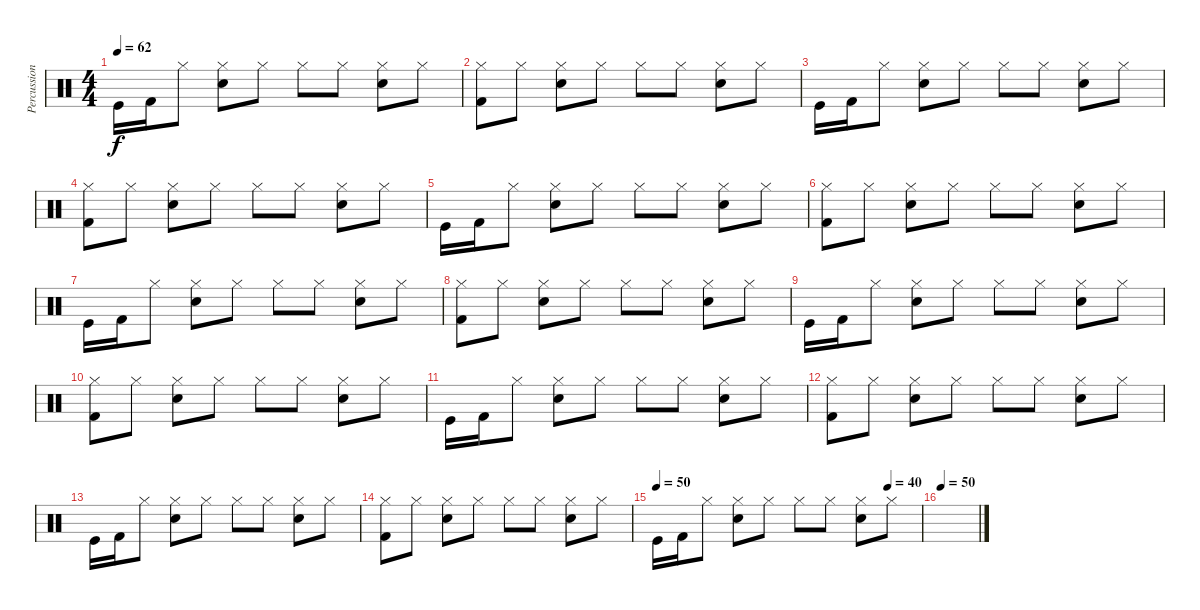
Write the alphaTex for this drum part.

\track ("Percussion" "Percussion") {instrument percussion}
\staff {score}
\articulation defaults
\ts (4 4)
\tempo 62
\clef neutral
\ks c "Kick (hit)".16{dy f} "Kick (hit) 2".16 "Hi-Hat (closed)".8
("Hi-Hat (closed)" "Snare (hit) 2").8 "Hi-Hat (closed)".8 "Hi-Hat (closed)".8 "Hi-Hat (closed)".8 ("Hi-Hat (closed)" "Snare (hit) 2").8 "Hi-Hat (closed)".8 |
("Hi-Hat (closed)" "Kick (hit) 2").8 "Hi-Hat (closed)".8 ("Hi-Hat (closed)" "Snare (hit) 2").8 "Hi-Hat (closed)".8 "Hi-Hat (closed)".8 "Hi-Hat (closed)".8 ("Hi-Hat (closed)" "Snare (hit) 2").8 "Hi-Hat (closed)".8 |
"Kick (hit)".16 "Kick (hit) 2".16 "Hi-Hat (closed)".8 ("Hi-Hat (closed)" "Snare (hit) 2").8 "Hi-Hat (closed)".8 "Hi-Hat (closed)".8 "Hi-Hat (closed)".8 ("Hi-Hat (closed)" "Snare (hit) 2").8 "Hi-Hat (closed)".8 |
("Hi-Hat (closed)" "Kick (hit) 2").8 "Hi-Hat (closed)".8 ("Hi-Hat (closed)" "Snare (hit) 2").8 "Hi-Hat (closed)".8 "Hi-Hat (closed)".8 "Hi-Hat (closed)".8 ("Hi-Hat (closed)" "Snare (hit) 2").8 "Hi-Hat (closed)".8 |
"Kick (hit)".16 "Kick (hit) 2".16 "Hi-Hat (closed)".8 ("Hi-Hat (closed)" "Snare (hit) 2").8 "Hi-Hat (closed)".8 "Hi-Hat (closed)".8 "Hi-Hat (closed)".8 ("Hi-Hat (closed)" "Snare (hit) 2").8 "Hi-Hat (closed)".8 |
("Hi-Hat (closed)" "Kick (hit) 2").8 "Hi-Hat (closed)".8 ("Hi-Hat (closed)" "Snare (hit) 2").8 "Hi-Hat (closed)".8 "Hi-Hat (closed)".8 "Hi-Hat (closed)".8 ("Hi-Hat (closed)" "Snare (hit) 2").8 "Hi-Hat (closed)".8 |
"Kick (hit)".16 "Kick (hit) 2".16 "Hi-Hat (closed)".8 ("Hi-Hat (closed)" "Snare (hit) 2").8 "Hi-Hat (closed)".8 "Hi-Hat (closed)".8 "Hi-Hat (closed)".8 ("Hi-Hat (closed)" "Snare (hit) 2").8 "Hi-Hat (closed)".8 |
("Hi-Hat (closed)" "Kick (hit) 2").8 "Hi-Hat (closed)".8 ("Hi-Hat (closed)" "Snare (hit) 2").8 "Hi-Hat (closed)".8 "Hi-Hat (closed)".8 "Hi-Hat (closed)".8 ("Hi-Hat (closed)" "Snare (hit) 2").8 "Hi-Hat (closed)".8 |
"Kick (hit)".16 "Kick (hit) 2".16 "Hi-Hat (closed)".8 ("Hi-Hat (closed)" "Snare (hit) 2").8 "Hi-Hat (closed)".8 "Hi-Hat (closed)".8 "Hi-Hat (closed)".8 ("Hi-Hat (closed)" "Snare (hit) 2").8 "Hi-Hat (closed)".8 |
("Hi-Hat (closed)" "Kick (hit) 2").8 "Hi-Hat (closed)".8 ("Hi-Hat (closed)" "Snare (hit) 2").8 "Hi-Hat (closed)".8 "Hi-Hat (closed)".8 "Hi-Hat (closed)".8 ("Hi-Hat (closed)" "Snare (hit) 2").8 "Hi-Hat (closed)".8 |
"Kick (hit)".16 "Kick (hit) 2".16 "Hi-Hat (closed)".8 ("Hi-Hat (closed)" "Snare (hit) 2").8 "Hi-Hat (closed)".8 "Hi-Hat (closed)".8 "Hi-Hat (closed)".8 ("Hi-Hat (closed)" "Snare (hit) 2").8 "Hi-Hat (closed)".8 |
("Hi-Hat (closed)" "Kick (hit) 2").8 "Hi-Hat (closed)".8 ("Hi-Hat (closed)" "Snare (hit) 2").8 "Hi-Hat (closed)".8 "Hi-Hat (closed)".8 "Hi-Hat (closed)".8 ("Hi-Hat (closed)" "Snare (hit) 2").8 "Hi-Hat (closed)".8 |
"Kick (hit)".16 "Kick (hit) 2".16 "Hi-Hat (closed)".8 ("Hi-Hat (closed)" "Snare (hit) 2").8 "Hi-Hat (closed)".8 "Hi-Hat (closed)".8 "Hi-Hat (closed)".8 ("Hi-Hat (closed)" "Snare (hit) 2").8 "Hi-Hat (closed)".8 |
("Hi-Hat (closed)" "Kick (hit) 2").8 "Hi-Hat (closed)".8 ("Hi-Hat (closed)" "Snare (hit) 2").8 "Hi-Hat (closed)".8 "Hi-Hat (closed)".8 "Hi-Hat (closed)".8 ("Hi-Hat (closed)" "Snare (hit) 2").8 "Hi-Hat (closed)".8 |
\tempo 50
\tempo (40 0.875)
"Kick (hit)".16 "Kick (hit) 2".16 "Hi-Hat (closed)".8 ("Hi-Hat (closed)" "Snare (hit) 2").8 "Hi-Hat (closed)".8 "Hi-Hat (closed)".8 "Hi-Hat (closed)".8 ("Hi-Hat (closed)" "Snare (hit) 2").8 "Hi-Hat (closed)".8 |
\tempo 50
